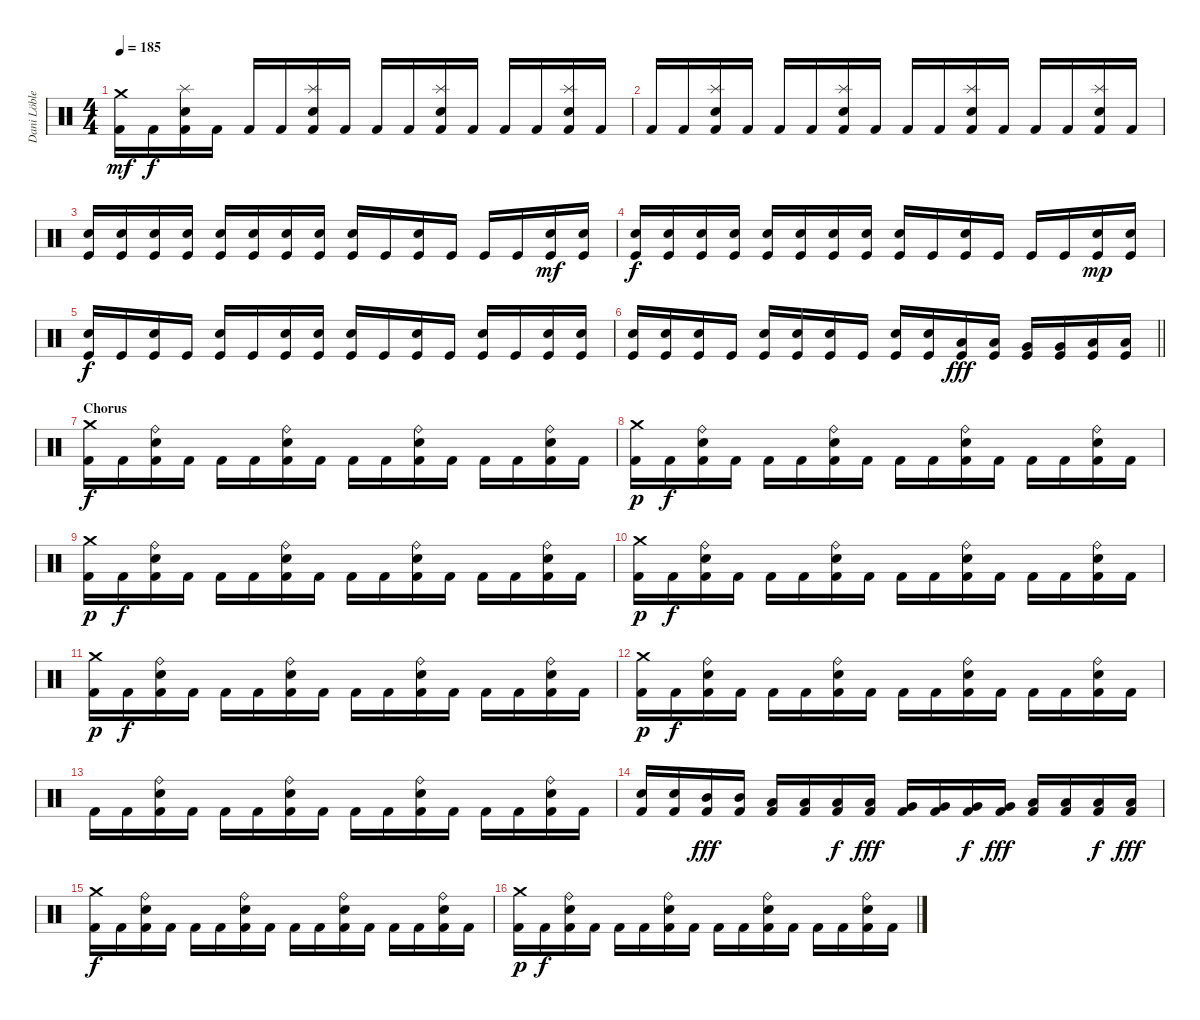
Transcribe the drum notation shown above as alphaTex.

\track ("Dani Löble" "Dani Löble") {instrument percussion}
\staff {score}
\articulation defaults
\ts (4 4)
\tempo 185
\clef neutral
\ks c
("Crash medium (hit)" "Kick (hit) 2").16{dy mf} "Kick (hit) 2".16{dy f} ("Splash (hit)" "Electric Snare (hit)" "Kick (hit) 2").16 "Kick (hit) 2".16 "Kick (hit) 2".16 "Kick (hit) 2".16 ("Splash (hit)" "Electric Snare (hit)" "Kick (hit) 2").16 "Kick (hit) 2".16 "Kick (hit) 2".16 "Kick (hit) 2".16 ("Splash (hit)" "Electric Snare (hit)" "Kick (hit) 2").16 "Kick (hit) 2".16 "Kick (hit) 2".16 "Kick (hit) 2".16 ("Splash (hit)" "Electric Snare (hit)" "Kick (hit) 2").16 "Kick (hit) 2".16 |
"Kick (hit) 2".16 "Kick (hit) 2".16 ("Splash (hit)" "Electric Snare (hit)" "Kick (hit) 2").16 "Kick (hit) 2".16 "Kick (hit) 2".16 "Kick (hit) 2".16 ("Splash (hit)" "Electric Snare (hit)" "Kick (hit) 2").16 "Kick (hit) 2".16 "Kick (hit) 2".16 "Kick (hit) 2".16 ("Splash (hit)" "Electric Snare (hit)" "Kick (hit) 2").16 "Kick (hit) 2".16 "Kick (hit) 2".16 "Kick (hit) 2".16 ("Splash (hit)" "Electric Snare (hit)" "Kick (hit) 2").16 "Kick (hit) 2".16 |
("Electric Snare (hit)" "Kick (hit)").16 ("Electric Snare (hit)" "Kick (hit)").16 ("Electric Snare (hit)" "Kick (hit)").16 ("Electric Snare (hit)" "Kick (hit)").16 ("Electric Snare (hit)" "Kick (hit)").16 ("Electric Snare (hit)" "Kick (hit)").16 ("Electric Snare (hit)" "Kick (hit)").16 ("Electric Snare (hit)" "Kick (hit)").16 ("Electric Snare (hit)" "Kick (hit)").16 "Kick (hit)".16 ("Electric Snare (hit)" "Kick (hit)").16 "Kick (hit)".16 "Kick (hit)".16 "Kick (hit)".16 ("Electric Snare (hit)" "Kick (hit)").16{dy mf} ("Electric Snare (hit)" "Kick (hit)").16 |
("Electric Snare (hit)" "Kick (hit)").16{dy f} ("Electric Snare (hit)" "Kick (hit)").16 ("Electric Snare (hit)" "Kick (hit)").16 ("Electric Snare (hit)" "Kick (hit)").16 ("Electric Snare (hit)" "Kick (hit)").16 ("Electric Snare (hit)" "Kick (hit)").16 ("Electric Snare (hit)" "Kick (hit)").16 ("Electric Snare (hit)" "Kick (hit)").16 ("Electric Snare (hit)" "Kick (hit)").16 "Kick (hit)".16 ("Electric Snare (hit)" "Kick (hit)").16 "Kick (hit)".16 "Kick (hit)".16 "Kick (hit)".16 ("Electric Snare (hit)" "Kick (hit)").16{dy mp} ("Electric Snare (hit)" "Kick (hit)").16 |
("Electric Snare (hit)" "Kick (hit)").16{dy f} "Kick (hit)".16 ("Electric Snare (hit)" "Kick (hit)").16 "Kick (hit)".16 ("Electric Snare (hit)" "Kick (hit)").16 "Kick (hit)".16 ("Electric Snare (hit)" "Kick (hit)").16 ("Electric Snare (hit)" "Kick (hit)").16 ("Electric Snare (hit)" "Kick (hit)").16 "Kick (hit)".16 ("Electric Snare (hit)" "Kick (hit)").16 "Kick (hit)".16 ("Electric Snare (hit)" "Kick (hit)").16 "Kick (hit)".16 ("Electric Snare (hit)" "Kick (hit)").16 ("Electric Snare (hit)" "Kick (hit)").16 |
\barLineRight lightlight
("Electric Snare (hit)" "Kick (hit)").16 ("Electric Snare (hit)" "Kick (hit)").16 ("Electric Snare (hit)" "Kick (hit)").16 "Kick (hit)".16 ("Electric Snare (hit)" "Kick (hit)").16 ("Electric Snare (hit)" "Kick (hit)").16 ("Electric Snare (hit)" "Kick (hit)").16 "Kick (hit)".16 ("Electric Snare (hit)" "Kick (hit)").16 ("Electric Snare (hit)" "Kick (hit)").16 ("Low Tom (hit)" "Kick (hit)").16{dy fff} ("Low Tom (hit)" "Kick (hit)").16 ("Very Low Tom (hit)" "Kick (hit)").16 ("Very Low Tom (hit)" "Kick (hit)").16 ("Low Floor Tom (hit)" "Kick (hit)").16 ("Low Floor Tom (hit)" "Kick (hit)").16 |
\section ("" "Chorus")
("Crash medium (hit)" "Kick (hit) 2").16{dy f} "Kick (hit) 2".16 ("Ride (bell)" "Electric Snare (hit)" "Kick (hit) 2").16 "Kick (hit) 2".16 "Kick (hit) 2".16 "Kick (hit) 2".16 ("Ride (bell)" "Electric Snare (hit)" "Kick (hit) 2").16 "Kick (hit) 2".16 "Kick (hit) 2".16 "Kick (hit) 2".16 ("Ride (bell)" "Electric Snare (hit)" "Kick (hit) 2").16 "Kick (hit) 2".16 "Kick (hit) 2".16 "Kick (hit) 2".16 ("Ride (bell)" "Electric Snare (hit)" "Kick (hit) 2").16 "Kick (hit) 2".16 |
("Crash medium (hit)" "Kick (hit) 2").16{dy p} "Kick (hit) 2".16{dy f} ("Ride (bell)" "Electric Snare (hit)" "Kick (hit) 2").16 "Kick (hit) 2".16 "Kick (hit) 2".16 "Kick (hit) 2".16 ("Ride (bell)" "Electric Snare (hit)" "Kick (hit) 2").16 "Kick (hit) 2".16 "Kick (hit) 2".16 "Kick (hit) 2".16 ("Ride (bell)" "Electric Snare (hit)" "Kick (hit) 2").16 "Kick (hit) 2".16 "Kick (hit) 2".16 "Kick (hit) 2".16 ("Ride (bell)" "Electric Snare (hit)" "Kick (hit) 2").16 "Kick (hit) 2".16 |
("Crash medium (hit)" "Kick (hit) 2").16{dy p} "Kick (hit) 2".16{dy f} ("Ride (bell)" "Electric Snare (hit)" "Kick (hit) 2").16 "Kick (hit) 2".16 "Kick (hit) 2".16 "Kick (hit) 2".16 ("Ride (bell)" "Electric Snare (hit)" "Kick (hit) 2").16 "Kick (hit) 2".16 "Kick (hit) 2".16 "Kick (hit) 2".16 ("Ride (bell)" "Electric Snare (hit)" "Kick (hit) 2").16 "Kick (hit) 2".16 "Kick (hit) 2".16 "Kick (hit) 2".16 ("Ride (bell)" "Electric Snare (hit)" "Kick (hit) 2").16 "Kick (hit) 2".16 |
("Crash medium (hit)" "Kick (hit) 2").16{dy p} "Kick (hit) 2".16{dy f} ("Ride (bell)" "Electric Snare (hit)" "Kick (hit) 2").16 "Kick (hit) 2".16 "Kick (hit) 2".16 "Kick (hit) 2".16 ("Ride (bell)" "Electric Snare (hit)" "Kick (hit) 2").16 "Kick (hit) 2".16 "Kick (hit) 2".16 "Kick (hit) 2".16 ("Ride (bell)" "Electric Snare (hit)" "Kick (hit) 2").16 "Kick (hit) 2".16 "Kick (hit) 2".16 "Kick (hit) 2".16 ("Ride (bell)" "Electric Snare (hit)" "Kick (hit) 2").16 "Kick (hit) 2".16 |
("Crash medium (hit)" "Kick (hit) 2").16{dy p} "Kick (hit) 2".16{dy f} ("Ride (bell)" "Electric Snare (hit)" "Kick (hit) 2").16 "Kick (hit) 2".16 "Kick (hit) 2".16 "Kick (hit) 2".16 ("Ride (bell)" "Electric Snare (hit)" "Kick (hit) 2").16 "Kick (hit) 2".16 "Kick (hit) 2".16 "Kick (hit) 2".16 ("Ride (bell)" "Electric Snare (hit)" "Kick (hit) 2").16 "Kick (hit) 2".16 "Kick (hit) 2".16 "Kick (hit) 2".16 ("Ride (bell)" "Electric Snare (hit)" "Kick (hit) 2").16 "Kick (hit) 2".16 |
("Crash medium (hit)" "Kick (hit) 2").16{dy p} "Kick (hit) 2".16{dy f} ("Ride (bell)" "Electric Snare (hit)" "Kick (hit) 2").16 "Kick (hit) 2".16 "Kick (hit) 2".16 "Kick (hit) 2".16 ("Ride (bell)" "Electric Snare (hit)" "Kick (hit) 2").16 "Kick (hit) 2".16 "Kick (hit) 2".16 "Kick (hit) 2".16 ("Ride (bell)" "Electric Snare (hit)" "Kick (hit) 2").16 "Kick (hit) 2".16 "Kick (hit) 2".16 "Kick (hit) 2".16 ("Ride (bell)" "Electric Snare (hit)" "Kick (hit) 2").16 "Kick (hit) 2".16 |
"Kick (hit) 2".16 "Kick (hit) 2".16 ("Ride (bell)" "Electric Snare (hit)" "Kick (hit) 2").16 "Kick (hit) 2".16 "Kick (hit) 2".16 "Kick (hit) 2".16 ("Ride (bell)" "Electric Snare (hit)" "Kick (hit) 2").16 "Kick (hit) 2".16 "Kick (hit) 2".16 "Kick (hit) 2".16 ("Ride (bell)" "Electric Snare (hit)" "Kick (hit) 2").16 "Kick (hit) 2".16 "Kick (hit) 2".16 "Kick (hit) 2".16 ("Ride (bell)" "Electric Snare (hit)" "Kick (hit) 2").16 "Kick (hit) 2".16 |
("Electric Snare (hit)" "Kick (hit) 2").16 ("Electric Snare (hit)" "Kick (hit) 2").16 ("Mid Tom (hit)" "Kick (hit) 2").16{dy fff} ("Mid Tom (hit)" "Kick (hit) 2").16 ("Low Tom (hit)" "Kick (hit) 2").16 ("Low Tom (hit)" "Kick (hit) 2").16 ("Low Tom (hit)" "Kick (hit) 2").16{dy f} ("Low Tom (hit)" "Kick (hit) 2").16{dy fff} ("Very Low Tom (hit)" "Kick (hit) 2").16 ("Very Low Tom (hit)" "Kick (hit) 2").16 ("Very Low Tom (hit)" "Kick (hit) 2").16{dy f} ("Very Low Tom (hit)" "Kick (hit) 2").16{dy fff} ("Low Floor Tom (hit)" "Kick (hit) 2").16 ("Low Floor Tom (hit)" "Kick (hit) 2").16 ("Low Floor Tom (hit)" "Kick (hit) 2").16{dy f} ("Low Floor Tom (hit)" "Kick (hit) 2").16{dy fff} |
("Crash medium (hit)" "Kick (hit) 2").16{dy f} "Kick (hit) 2".16 ("Ride (bell)" "Electric Snare (hit)" "Kick (hit) 2").16 "Kick (hit) 2".16 "Kick (hit) 2".16 "Kick (hit) 2".16 ("Ride (bell)" "Electric Snare (hit)" "Kick (hit) 2").16 "Kick (hit) 2".16 "Kick (hit) 2".16 "Kick (hit) 2".16 ("Ride (bell)" "Electric Snare (hit)" "Kick (hit) 2").16 "Kick (hit) 2".16 "Kick (hit) 2".16 "Kick (hit) 2".16 ("Ride (bell)" "Electric Snare (hit)" "Kick (hit) 2").16 "Kick (hit) 2".16 |
("Crash medium (hit)" "Kick (hit) 2").16{dy p} "Kick (hit) 2".16{dy f} ("Ride (bell)" "Electric Snare (hit)" "Kick (hit) 2").16 "Kick (hit) 2".16 "Kick (hit) 2".16 "Kick (hit) 2".16 ("Ride (bell)" "Electric Snare (hit)" "Kick (hit) 2").16 "Kick (hit) 2".16 "Kick (hit) 2".16 "Kick (hit) 2".16 ("Ride (bell)" "Electric Snare (hit)" "Kick (hit) 2").16 "Kick (hit) 2".16 "Kick (hit) 2".16 "Kick (hit) 2".16 ("Ride (bell)" "Electric Snare (hit)" "Kick (hit) 2").16 "Kick (hit) 2".16
